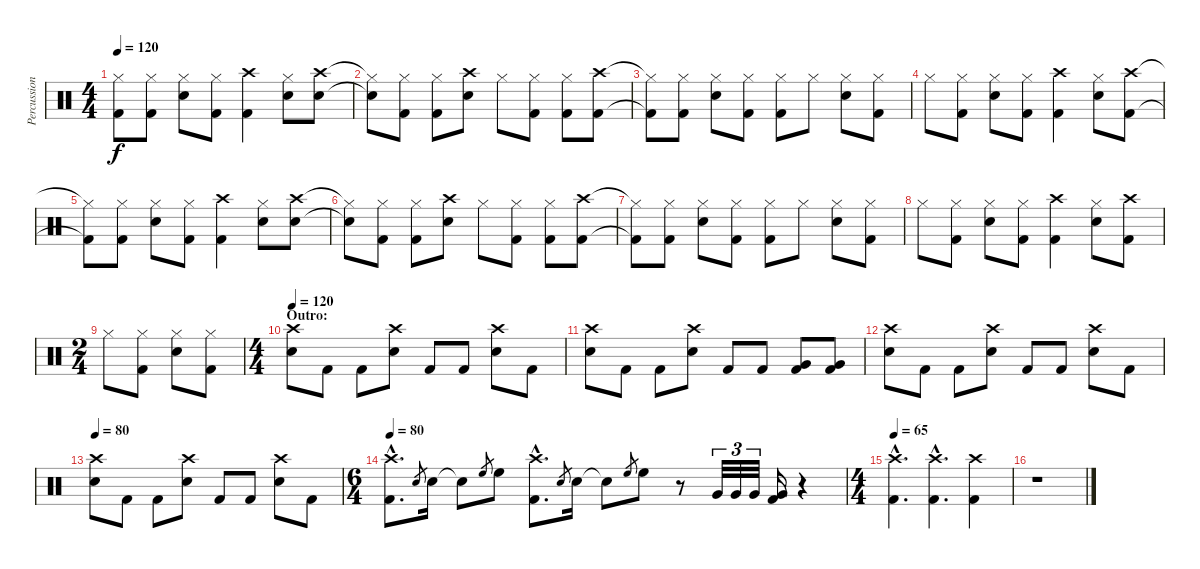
\track ("Percussion" "Percussion") {instrument percussion}
\staff {score}
\articulation defaults
\ts (4 4)
\tempo 120
\clef neutral
\ks c
("Hi-Hat (closed)"{t} "Kick (hit) 2"{t}).8{dy f} ("Hi-Hat (closed)" "Kick (hit) 2").8 ("Hi-Hat (closed)" "Snare (hit) 2").8 ("Hi-Hat (closed)" "Kick (hit) 2").8 ("Crash high (hit)" "Kick (hit) 2").4 ("Hi-Hat (closed)" "Snare (hit) 2").8 ("Crash high (hit)" "Snare (hit) 2").8 |
("Hi-Hat (closed)"{t} "Snare (hit)"{t}).8 ("Hi-Hat (closed)" "Kick (hit) 2").8 ("Hi-Hat (closed)" "Kick (hit) 2").8 ("Crash high (hit)" "Snare (hit) 2").8 "Hi-Hat (closed)".8 ("Hi-Hat (closed)" "Kick (hit) 2").8 ("Hi-Hat (closed)" "Kick (hit) 2").8 ("Crash high (hit)" "Kick (hit) 2").8 |
("Hi-Hat (closed)"{t} "Kick (hit) 2"{t}).8 ("Hi-Hat (closed)" "Kick (hit) 2").8 ("Hi-Hat (closed)" "Snare (hit) 2").8 ("Hi-Hat (closed)" "Kick (hit) 2").8 ("Hi-Hat (closed)" "Kick (hit) 2").8 "Hi-Hat (closed)".8 ("Hi-Hat (closed)" "Snare (hit) 2").8 ("Hi-Hat (closed)" "Kick (hit) 2").8 |
"Hi-Hat (closed)".8 ("Hi-Hat (closed)" "Kick (hit) 2").8 ("Hi-Hat (closed)" "Snare (hit) 2").8 ("Hi-Hat (closed)" "Kick (hit) 2").8 ("Crash high (hit)" "Kick (hit) 2").4 ("Hi-Hat (closed)" "Snare (hit) 2").8 ("Crash high (hit)" "Kick (hit) 2").8 |
("Hi-Hat (closed)"{t} "Kick (hit) 2"{t}).8 ("Hi-Hat (closed)" "Kick (hit) 2").8 ("Hi-Hat (closed)" "Snare (hit) 2").8 ("Hi-Hat (closed)" "Kick (hit) 2").8 ("Crash high (hit)" "Kick (hit) 2").4 ("Hi-Hat (closed)" "Snare (hit) 2").8 ("Crash high (hit)" "Snare (hit) 2").8 |
("Hi-Hat (closed)"{t} "Snare (hit)"{t}).8 ("Hi-Hat (closed)" "Kick (hit) 2").8 ("Hi-Hat (closed)" "Kick (hit) 2").8 ("Crash high (hit)" "Snare (hit) 2").8 "Hi-Hat (closed)".8 ("Hi-Hat (closed)" "Kick (hit) 2").8 ("Hi-Hat (closed)" "Kick (hit) 2").8 ("Crash high (hit)" "Kick (hit) 2").8 |
("Hi-Hat (closed)"{t} "Kick (hit) 2"{t}).8 ("Hi-Hat (closed)" "Kick (hit) 2").8 ("Hi-Hat (closed)" "Snare (hit) 2").8 ("Hi-Hat (closed)" "Kick (hit) 2").8 ("Hi-Hat (closed)" "Kick (hit) 2").8 "Hi-Hat (closed)".8 ("Hi-Hat (closed)" "Snare (hit) 2").8 ("Hi-Hat (closed)" "Kick (hit) 2").8 |
"Hi-Hat (closed)".8 ("Hi-Hat (closed)" "Kick (hit) 2").8 ("Hi-Hat (closed)" "Snare (hit) 2").8 ("Hi-Hat (closed)" "Kick (hit) 2").8 ("Crash high (hit)" "Kick (hit) 2").4 ("Hi-Hat (closed)" "Snare (hit) 2").8 ("Crash high (hit)" "Kick (hit) 2").8 |
\ts (2 4)
"Hi-Hat (closed)".8 ("Hi-Hat (closed)" "Kick (hit) 2").8 ("Hi-Hat (closed)" "Snare (hit) 2").8 ("Hi-Hat (closed)" "Kick (hit) 2").8 |
\ts (4 4)
\section ("" "Outro:")
\tempo 120
("Crash high (hit)" "Snare (hit) 2").8 "Kick (hit) 2".8 "Kick (hit) 2".8 ("Crash high (hit)" "Snare (hit) 2").8 "Kick (hit) 2".8 "Kick (hit) 2".8 ("Crash high (hit)" "Snare (hit) 2").8 "Kick (hit) 2".8 |
("Crash high (hit)" "Snare (hit) 2").8 "Kick (hit) 2".8 "Kick (hit) 2".8 ("Crash high (hit)" "Snare (hit) 2").8 "Kick (hit) 2".8 "Kick (hit) 2".8 ("Very Low Tom (hit)" "Kick (hit) 2").8 ("Very Low Tom (hit)" "Kick (hit) 2").8 |
("Crash high (hit)" "Snare (hit) 2").8 "Kick (hit) 2".8 "Kick (hit) 2".8 ("Crash high (hit)" "Snare (hit) 2").8 "Kick (hit) 2".8 "Kick (hit) 2".8 ("Crash high (hit)" "Snare (hit) 2").8 "Kick (hit) 2".8 |
\tempo 80
("Crash high (hit)" "Snare (hit) 2").8 "Kick (hit) 2".8 "Kick (hit) 2".8 ("Crash high (hit)" "Snare (hit) 2").8 "Kick (hit) 2".8 "Kick (hit) 2".8 ("Crash high (hit)" "Snare (hit) 2").8 "Kick (hit) 2".8 |
\ts (6 4)
\tempo 80
("Crash high (hit)"{hac} "Kick (hit) 2"{hac}).8{d} "Snare (hit) 2".8{gr} "Snare (hit) 2".16 "Snare (hit)"{t}.8 "High Floor Tom (hit)".8{gr} "High Floor Tom (hit)".8 ("Crash high (hit)"{hac} "Kick (hit) 2"{hac}).8{d} "Snare (hit) 2".8{gr} "Snare (hit) 2".16 "Snare (hit)"{t}.8 "High Floor Tom (hit)".8{gr} "High Floor Tom (hit)".8 r.8 "Very Low Tom (hit)".32{tu (3 2)} "Very Low Tom (hit)".32{tu (3 2)} "Very Low Tom (hit)".32{tu (3 2)} ("Very Low Tom (hit)" "Kick (hit) 2").16 r.4 |
\ts (4 4)
\tempo 65
("Crash high (hit)"{hac} "Kick (hit) 2"{hac}).4{d} ("Crash high (hit)"{hac} "Kick (hit) 2"{hac}).4{d} ("Crash high (hit)" "Kick (hit) 2").4 |
r.1
